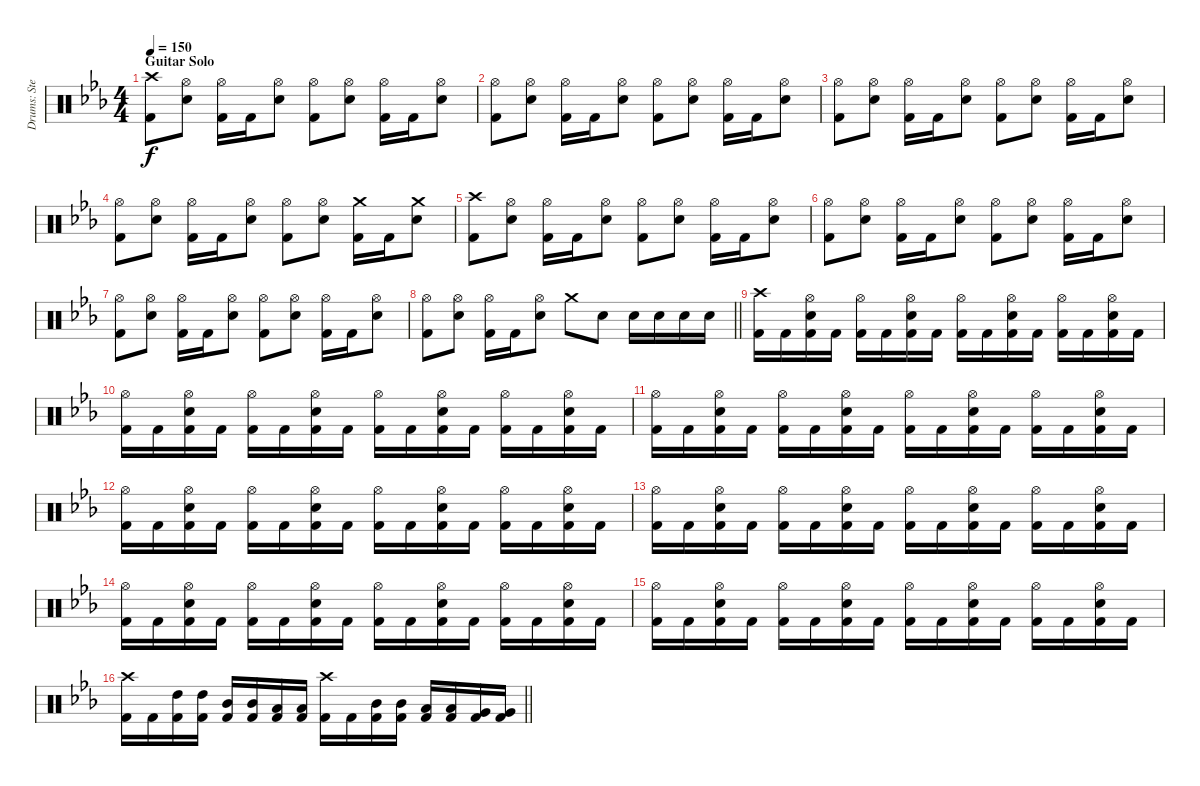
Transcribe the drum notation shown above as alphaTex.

\track ("Drums: Stefan Svantesson" "Drums: Ste") {instrument percussion}
\staff {score}
\articulation defaults
\ts (4 4)
\section ("" "Guitar Solo")
\tempo 150
\clef neutral
\ks cminor
("Crash high (hit)" "Kick (hit) 2").8{dy f} ("Hi-Hat (open)" "Electric Snare (hit)").8 ("Hi-Hat (open)" "Kick (hit) 2").16 "Kick (hit) 2".16 ("Hi-Hat (open)" "Electric Snare (hit)").8 ("Hi-Hat (open)" "Kick (hit) 2").8 ("Hi-Hat (open)" "Electric Snare (hit)").8 ("Hi-Hat (open)" "Kick (hit) 2").16 "Kick (hit) 2".16 ("Hi-Hat (open)" "Electric Snare (hit)").8 |
("Hi-Hat (open)" "Kick (hit) 2").8 ("Hi-Hat (open)" "Electric Snare (hit)").8 ("Hi-Hat (open)" "Kick (hit) 2").16 "Kick (hit) 2".16 ("Hi-Hat (open)" "Electric Snare (hit)").8 ("Hi-Hat (open)" "Kick (hit) 2").8 ("Hi-Hat (open)" "Electric Snare (hit)").8 ("Hi-Hat (open)" "Kick (hit) 2").16 "Kick (hit) 2".16 ("Hi-Hat (open)" "Electric Snare (hit)").8 |
("Hi-Hat (open)" "Kick (hit) 2").8 ("Hi-Hat (open)" "Electric Snare (hit)").8 ("Hi-Hat (open)" "Kick (hit) 2").16 "Kick (hit) 2".16 ("Hi-Hat (open)" "Electric Snare (hit)").8 ("Hi-Hat (open)" "Kick (hit) 2").8 ("Hi-Hat (open)" "Electric Snare (hit)").8 ("Hi-Hat (open)" "Kick (hit) 2").16 "Kick (hit) 2".16 ("Hi-Hat (open)" "Electric Snare (hit)").8 |
("Hi-Hat (open)" "Kick (hit) 2").8 ("Hi-Hat (open)" "Electric Snare (hit)").8 ("Hi-Hat (open)" "Kick (hit) 2").16 "Kick (hit) 2".16 ("Hi-Hat (open)" "Electric Snare (hit)").8 ("Hi-Hat (open)" "Kick (hit) 2").8 ("Hi-Hat (open)" "Electric Snare (hit)").8 ("Crash medium (hit)" "Kick (hit) 2").16 "Kick (hit) 2".16 ("Crash medium (hit)" "Electric Snare (hit)").8 |
("Crash high (hit)" "Kick (hit) 2").8 ("Hi-Hat (open)" "Electric Snare (hit)").8 ("Hi-Hat (open)" "Kick (hit) 2").16 "Kick (hit) 2".16 ("Hi-Hat (open)" "Electric Snare (hit)").8 ("Hi-Hat (open)" "Kick (hit) 2").8 ("Hi-Hat (open)" "Electric Snare (hit)").8 ("Hi-Hat (open)" "Kick (hit) 2").16 "Kick (hit) 2".16 ("Hi-Hat (open)" "Electric Snare (hit)").8 |
("Hi-Hat (open)" "Kick (hit) 2").8 ("Hi-Hat (open)" "Electric Snare (hit)").8 ("Hi-Hat (open)" "Kick (hit) 2").16 "Kick (hit) 2".16 ("Hi-Hat (open)" "Electric Snare (hit)").8 ("Hi-Hat (open)" "Kick (hit) 2").8 ("Hi-Hat (open)" "Electric Snare (hit)").8 ("Hi-Hat (open)" "Kick (hit) 2").16 "Kick (hit) 2".16 ("Hi-Hat (open)" "Electric Snare (hit)").8 |
("Hi-Hat (open)" "Kick (hit) 2").8 ("Hi-Hat (open)" "Electric Snare (hit)").8 ("Hi-Hat (open)" "Kick (hit) 2").16 "Kick (hit) 2".16 ("Hi-Hat (open)" "Electric Snare (hit)").8 ("Hi-Hat (open)" "Kick (hit) 2").8 ("Hi-Hat (open)" "Electric Snare (hit)").8 ("Hi-Hat (open)" "Kick (hit) 2").16 "Kick (hit) 2".16 ("Hi-Hat (open)" "Electric Snare (hit)").8 |
\barLineRight lightlight
("Hi-Hat (open)" "Kick (hit) 2").8 ("Hi-Hat (open)" "Electric Snare (hit)").8 ("Hi-Hat (open)" "Kick (hit) 2").16 "Kick (hit) 2".16 ("Hi-Hat (open)" "Electric Snare (hit)").8 "Crash medium (hit)".8 "Electric Snare (hit)".8 "Electric Snare (hit)".16 "Electric Snare (hit)".16 "Electric Snare (hit)".16 "Electric Snare (hit)".16 |
("Crash high (hit)" "Kick (hit) 2").16 "Kick (hit) 2".16 ("Hi-Hat (open)" "Electric Snare (hit)" "Kick (hit) 2").16 "Kick (hit) 2".16 ("Hi-Hat (open)" "Kick (hit) 2").16 "Kick (hit) 2".16 ("Hi-Hat (open)" "Electric Snare (hit)" "Kick (hit) 2").16 "Kick (hit) 2".16 ("Hi-Hat (open)" "Kick (hit) 2").16 "Kick (hit) 2".16 ("Hi-Hat (open)" "Electric Snare (hit)" "Kick (hit) 2").16 "Kick (hit) 2".16 ("Hi-Hat (open)" "Kick (hit) 2").16 "Kick (hit) 2".16 ("Hi-Hat (open)" "Electric Snare (hit)" "Kick (hit) 2").16 "Kick (hit) 2".16 |
("Hi-Hat (open)" "Kick (hit) 2").16 "Kick (hit) 2".16 ("Hi-Hat (open)" "Electric Snare (hit)" "Kick (hit) 2").16 "Kick (hit) 2".16 ("Hi-Hat (open)" "Kick (hit) 2").16 "Kick (hit) 2".16 ("Hi-Hat (open)" "Electric Snare (hit)" "Kick (hit) 2").16 "Kick (hit) 2".16 ("Hi-Hat (open)" "Kick (hit) 2").16 "Kick (hit) 2".16 ("Hi-Hat (open)" "Electric Snare (hit)" "Kick (hit) 2").16 "Kick (hit) 2".16 ("Hi-Hat (open)" "Kick (hit) 2").16 "Kick (hit) 2".16 ("Hi-Hat (open)" "Electric Snare (hit)" "Kick (hit) 2").16 "Kick (hit) 2".16 |
("Hi-Hat (open)" "Kick (hit) 2").16 "Kick (hit) 2".16 ("Hi-Hat (open)" "Electric Snare (hit)" "Kick (hit) 2").16 "Kick (hit) 2".16 ("Hi-Hat (open)" "Kick (hit) 2").16 "Kick (hit) 2".16 ("Hi-Hat (open)" "Electric Snare (hit)" "Kick (hit) 2").16 "Kick (hit) 2".16 ("Hi-Hat (open)" "Kick (hit) 2").16 "Kick (hit) 2".16 ("Hi-Hat (open)" "Electric Snare (hit)" "Kick (hit) 2").16 "Kick (hit) 2".16 ("Hi-Hat (open)" "Kick (hit) 2").16 "Kick (hit) 2".16 ("Hi-Hat (open)" "Electric Snare (hit)" "Kick (hit) 2").16 "Kick (hit) 2".16 |
("Hi-Hat (open)" "Kick (hit) 2").16 "Kick (hit) 2".16 ("Hi-Hat (open)" "Electric Snare (hit)" "Kick (hit) 2").16 "Kick (hit) 2".16 ("Hi-Hat (open)" "Kick (hit) 2").16 "Kick (hit) 2".16 ("Hi-Hat (open)" "Electric Snare (hit)" "Kick (hit) 2").16 "Kick (hit) 2".16 ("Hi-Hat (open)" "Kick (hit) 2").16 "Kick (hit) 2".16 ("Hi-Hat (open)" "Electric Snare (hit)" "Kick (hit) 2").16 "Kick (hit) 2".16 ("Hi-Hat (open)" "Kick (hit) 2").16 "Kick (hit) 2".16 ("Hi-Hat (open)" "Electric Snare (hit)" "Kick (hit) 2").16 "Kick (hit) 2".16 |
("Hi-Hat (open)" "Kick (hit) 2").16 "Kick (hit) 2".16 ("Hi-Hat (open)" "Electric Snare (hit)" "Kick (hit) 2").16 "Kick (hit) 2".16 ("Hi-Hat (open)" "Kick (hit) 2").16 "Kick (hit) 2".16 ("Hi-Hat (open)" "Electric Snare (hit)" "Kick (hit) 2").16 "Kick (hit) 2".16 ("Hi-Hat (open)" "Kick (hit) 2").16 "Kick (hit) 2".16 ("Hi-Hat (open)" "Electric Snare (hit)" "Kick (hit) 2").16 "Kick (hit) 2".16 ("Hi-Hat (open)" "Kick (hit) 2").16 "Kick (hit) 2".16 ("Hi-Hat (open)" "Electric Snare (hit)" "Kick (hit) 2").16 "Kick (hit) 2".16 |
("Hi-Hat (open)" "Kick (hit) 2").16 "Kick (hit) 2".16 ("Hi-Hat (open)" "Electric Snare (hit)" "Kick (hit) 2").16 "Kick (hit) 2".16 ("Hi-Hat (open)" "Kick (hit) 2").16 "Kick (hit) 2".16 ("Hi-Hat (open)" "Electric Snare (hit)" "Kick (hit) 2").16 "Kick (hit) 2".16 ("Hi-Hat (open)" "Kick (hit) 2").16 "Kick (hit) 2".16 ("Hi-Hat (open)" "Electric Snare (hit)" "Kick (hit) 2").16 "Kick (hit) 2".16 ("Hi-Hat (open)" "Kick (hit) 2").16 "Kick (hit) 2".16 ("Hi-Hat (open)" "Electric Snare (hit)" "Kick (hit) 2").16 "Kick (hit) 2".16 |
("Hi-Hat (open)" "Kick (hit) 2").16 "Kick (hit) 2".16 ("Hi-Hat (open)" "Electric Snare (hit)" "Kick (hit) 2").16 "Kick (hit) 2".16 ("Hi-Hat (open)" "Kick (hit) 2").16 "Kick (hit) 2".16 ("Hi-Hat (open)" "Electric Snare (hit)" "Kick (hit) 2").16 "Kick (hit) 2".16 ("Hi-Hat (open)" "Kick (hit) 2").16 "Kick (hit) 2".16 ("Hi-Hat (open)" "Electric Snare (hit)" "Kick (hit) 2").16 "Kick (hit) 2".16 ("Hi-Hat (open)" "Kick (hit) 2").16 "Kick (hit) 2".16 ("Hi-Hat (open)" "Electric Snare (hit)" "Kick (hit) 2").16 "Kick (hit) 2".16 |
\barLineRight lightlight
("Crash high (hit)" "Kick (hit) 2").16 "Kick (hit) 2".16 ("High Tom (hit)" "Kick (hit) 2").16 ("High Tom (hit)" "Kick (hit) 2").16 ("Mid Tom (hit)" "Kick (hit) 2").16 ("Mid Tom (hit)" "Kick (hit) 2").16 ("Low Tom (hit)" "Kick (hit) 2").16 ("Low Tom (hit)" "Kick (hit) 2").16 ("Crash high (hit)" "Kick (hit) 2").16 "Kick (hit) 2".16 ("Mid Tom (hit)" "Kick (hit) 2").16 ("Mid Tom (hit)" "Kick (hit) 2").16 ("Low Tom (hit)" "Kick (hit) 2").16 ("Low Tom (hit)" "Kick (hit) 2").16 ("Very Low Tom (hit)" "Kick (hit) 2").16 ("Very Low Tom (hit)" "Kick (hit) 2").16
